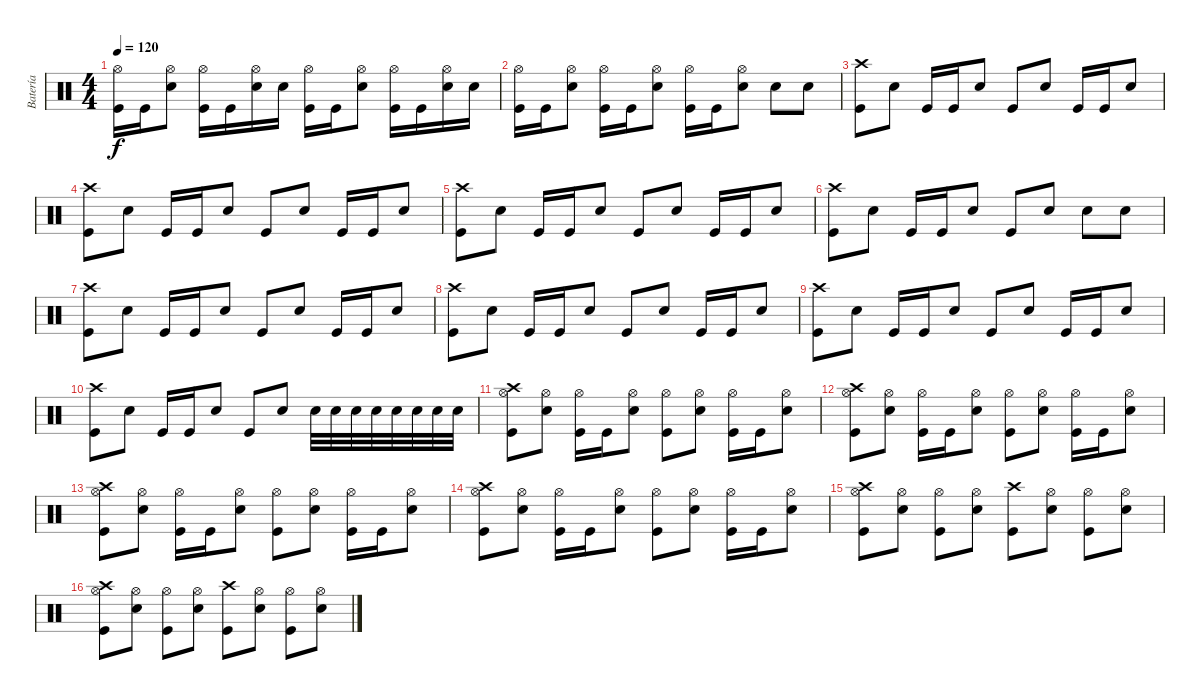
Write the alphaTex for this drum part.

\track ("Batería" "Batería") {instrument percussion}
\staff {score}
\articulation defaults
\ts (4 4)
\tempo 120
\clef neutral
\ks c
("Hi-Hat (open)" "Kick (hit)").16{dy f} "Kick (hit)".16 ("Hi-Hat (open)" "Electric Snare (hit)").8 ("Hi-Hat (open)" "Kick (hit)").16 "Kick (hit)".16 ("Hi-Hat (open)" "Electric Snare (hit)").16 "Electric Snare (hit)".16 ("Hi-Hat (open)" "Kick (hit)").16 "Kick (hit)".16 ("Hi-Hat (open)" "Electric Snare (hit)").8 ("Hi-Hat (open)" "Kick (hit)").16 "Kick (hit)".16 ("Hi-Hat (open)" "Electric Snare (hit)").16 "Electric Snare (hit)".16 |
("Hi-Hat (open)" "Kick (hit)").16 "Kick (hit)".16 ("Hi-Hat (open)" "Electric Snare (hit)").8 ("Hi-Hat (open)" "Kick (hit)").16 "Kick (hit)".16 ("Hi-Hat (open)" "Electric Snare (hit)").8 ("Hi-Hat (open)" "Kick (hit)").16 "Kick (hit)".16 ("Hi-Hat (open)" "Electric Snare (hit)").8 "Electric Snare (hit)".8 "Electric Snare (hit)".8 |
("Crash high (hit)" "Kick (hit)").8 "Electric Snare (hit)".8 "Kick (hit)".16 "Kick (hit)".16 "Electric Snare (hit)".8 "Kick (hit)".8 "Electric Snare (hit)".8 "Kick (hit)".16 "Kick (hit)".16 "Electric Snare (hit)".8 |
("Crash high (hit)" "Kick (hit)").8 "Electric Snare (hit)".8 "Kick (hit)".16 "Kick (hit)".16 "Electric Snare (hit)".8 "Kick (hit)".8 "Electric Snare (hit)".8 "Kick (hit)".16 "Kick (hit)".16 "Electric Snare (hit)".8 |
("Crash high (hit)" "Kick (hit)").8 "Electric Snare (hit)".8 "Kick (hit)".16 "Kick (hit)".16 "Electric Snare (hit)".8 "Kick (hit)".8 "Electric Snare (hit)".8 "Kick (hit)".16 "Kick (hit)".16 "Electric Snare (hit)".8 |
("Crash high (hit)" "Kick (hit)").8 "Electric Snare (hit)".8 "Kick (hit)".16 "Kick (hit)".16 "Electric Snare (hit)".8 "Kick (hit)".8 "Electric Snare (hit)".8 "Electric Snare (hit)".8 "Electric Snare (hit)".8 |
("Crash high (hit)" "Kick (hit)").8 "Electric Snare (hit)".8 "Kick (hit)".16 "Kick (hit)".16 "Electric Snare (hit)".8 "Kick (hit)".8 "Electric Snare (hit)".8 "Kick (hit)".16 "Kick (hit)".16 "Electric Snare (hit)".8 |
("Crash high (hit)" "Kick (hit)").8 "Electric Snare (hit)".8 "Kick (hit)".16 "Kick (hit)".16 "Electric Snare (hit)".8 "Kick (hit)".8 "Electric Snare (hit)".8 "Kick (hit)".16 "Kick (hit)".16 "Electric Snare (hit)".8 |
("Crash high (hit)" "Kick (hit)").8 "Electric Snare (hit)".8 "Kick (hit)".16 "Kick (hit)".16 "Electric Snare (hit)".8 "Kick (hit)".8 "Electric Snare (hit)".8 "Kick (hit)".16 "Kick (hit)".16 "Electric Snare (hit)".8 |
("Crash high (hit)" "Kick (hit)").8 "Electric Snare (hit)".8 "Kick (hit)".16 "Kick (hit)".16 "Electric Snare (hit)".8 "Kick (hit)".8 "Electric Snare (hit)".8 "Electric Snare (hit)".32 "Electric Snare (hit)".32 "Electric Snare (hit)".32 "Electric Snare (hit)".32 "Electric Snare (hit)".32 "Electric Snare (hit)".32 "Electric Snare (hit)".32 "Electric Snare (hit)".32 |
("Crash high (hit)" "Hi-Hat (open)" "Kick (hit)").8 ("Hi-Hat (open)" "Electric Snare (hit)").8 ("Hi-Hat (open)" "Kick (hit)").16 "Kick (hit)".16 ("Hi-Hat (open)" "Electric Snare (hit)").8 ("Hi-Hat (open)" "Kick (hit)").8 ("Hi-Hat (open)" "Electric Snare (hit)").8 ("Hi-Hat (open)" "Kick (hit)").16 "Kick (hit)".16 ("Hi-Hat (open)" "Electric Snare (hit)").8 |
("Crash high (hit)" "Hi-Hat (open)" "Kick (hit)").8 ("Hi-Hat (open)" "Electric Snare (hit)").8 ("Hi-Hat (open)" "Kick (hit)").16 "Kick (hit)".16 ("Hi-Hat (open)" "Electric Snare (hit)").8 ("Hi-Hat (open)" "Kick (hit)").8 ("Hi-Hat (open)" "Electric Snare (hit)").8 ("Hi-Hat (open)" "Kick (hit)").16 "Kick (hit)".16 ("Hi-Hat (open)" "Electric Snare (hit)").8 |
("Crash high (hit)" "Hi-Hat (open)" "Kick (hit)").8 ("Hi-Hat (open)" "Electric Snare (hit)").8 ("Hi-Hat (open)" "Kick (hit)").16 "Kick (hit)".16 ("Hi-Hat (open)" "Electric Snare (hit)").8 ("Hi-Hat (open)" "Kick (hit)").8 ("Hi-Hat (open)" "Electric Snare (hit)").8 ("Hi-Hat (open)" "Kick (hit)").16 "Kick (hit)".16 ("Hi-Hat (open)" "Electric Snare (hit)").8 |
("Crash high (hit)" "Hi-Hat (open)" "Kick (hit)").8 ("Hi-Hat (open)" "Electric Snare (hit)").8 ("Hi-Hat (open)" "Kick (hit)").16 "Kick (hit)".16 ("Hi-Hat (open)" "Electric Snare (hit)").8 ("Hi-Hat (open)" "Kick (hit)").8 ("Hi-Hat (open)" "Electric Snare (hit)").8 ("Hi-Hat (open)" "Kick (hit)").16 "Kick (hit)".16 ("Hi-Hat (open)" "Electric Snare (hit)").8 |
("Crash high (hit)" "Hi-Hat (open)" "Kick (hit)").8 ("Hi-Hat (open)" "Electric Snare (hit)").8 ("Hi-Hat (open)" "Kick (hit)").8 ("Hi-Hat (open)" "Electric Snare (hit)").8 ("Crash high (hit)" "Kick (hit)").8 ("Hi-Hat (open)" "Electric Snare (hit)").8 ("Hi-Hat (open)" "Kick (hit)").8 ("Hi-Hat (open)" "Electric Snare (hit)").8 |
("Crash high (hit)" "Hi-Hat (open)" "Kick (hit)").8 ("Hi-Hat (open)" "Electric Snare (hit)").8 ("Hi-Hat (open)" "Kick (hit)").8 ("Hi-Hat (open)" "Electric Snare (hit)").8 ("Crash high (hit)" "Kick (hit)").8 ("Hi-Hat (open)" "Electric Snare (hit)").8 ("Hi-Hat (open)" "Kick (hit)").8 ("Hi-Hat (open)" "Electric Snare (hit)").8
